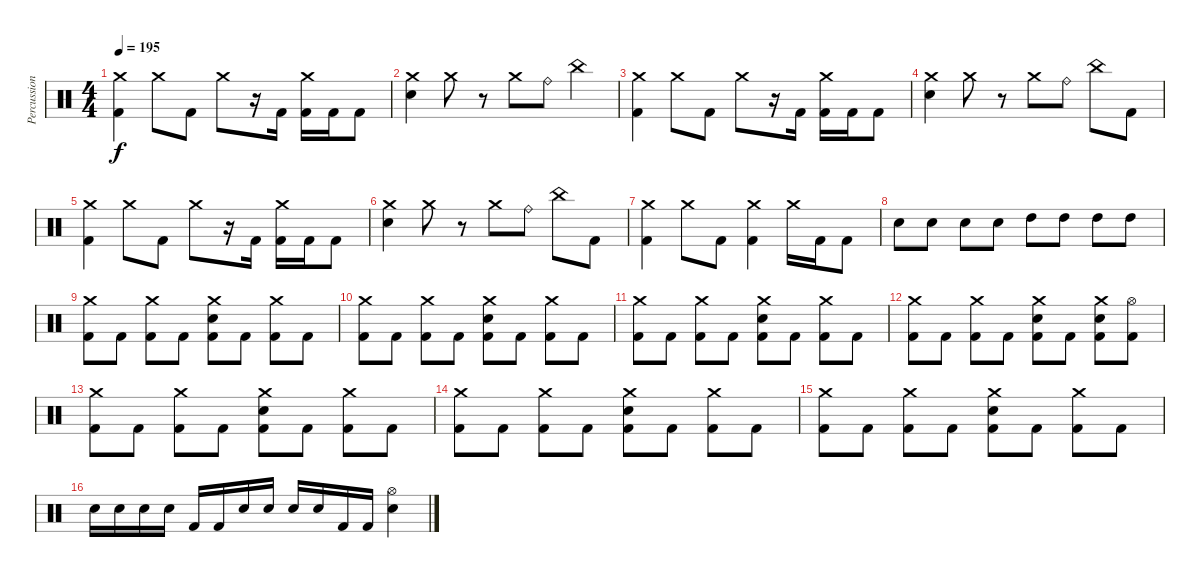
\track ("Percussion" "Percussion") {instrument percussion}
\staff {score}
\articulation defaults
\ts (4 4)
\tempo 195
\clef neutral
\ks c
("Crash medium (hit)" "Kick (hit) 2").4{dy f} "Crash medium (hit)".8 "Kick (hit) 2".8 "Crash medium (hit)".8 r.16 "Kick (hit) 2".16 ("Crash medium (hit)" "Kick (hit) 2").16 "Kick (hit) 2".16 "Kick (hit) 2".8 |
("Crash medium (hit)" "Snare (hit) 2").4 "Crash medium (hit)".8 r.8 "Crash medium (hit)".8 "Ride (bell)".8 "China (hit)".4 |
("Crash medium (hit)" "Kick (hit) 2").4 "Crash medium (hit)".8 "Kick (hit) 2".8 "Crash medium (hit)".8 r.16 "Kick (hit) 2".16 ("Crash medium (hit)" "Kick (hit) 2").16 "Kick (hit) 2".16 "Kick (hit) 2".8 |
("Crash medium (hit)" "Snare (hit) 2").4 "Crash medium (hit)".8 r.8 "Crash medium (hit)".8 "Ride (bell)".8 "China (hit)".8 "Kick (hit) 2".8 |
("Crash medium (hit)" "Kick (hit) 2").4 "Crash medium (hit)".8 "Kick (hit) 2".8 "Crash medium (hit)".8 r.16 "Kick (hit) 2".16 ("Crash medium (hit)" "Kick (hit) 2").16 "Kick (hit) 2".16 "Kick (hit) 2".8 |
("Crash medium (hit)" "Snare (hit) 2").4 "Crash medium (hit)".8 r.8 "Crash medium (hit)".8 "Ride (bell)".8 "China (hit)".8 "Kick (hit) 2".8 |
("Crash medium (hit)" "Kick (hit) 2").4 "Crash medium (hit)".8 "Kick (hit) 2".8 ("Crash medium (hit)" "Kick (hit) 2").4 "Crash medium (hit)".16 "Kick (hit) 2".16 "Kick (hit) 2".8 |
"Snare (hit) 2".8 "Snare (hit) 2".8 "Snare (hit) 2".8 "Snare (hit) 2".8 "High Tom (hit)".8 "High Tom (hit)".8 "High Tom (hit)".8 "High Tom (hit)".8 |
("Crash medium (hit)" "Kick (hit) 2").8 "Kick (hit) 2".8 ("Crash medium (hit)" "Kick (hit) 2").8 "Kick (hit) 2".8 ("Crash medium (hit)" "Snare (hit) 2" "Kick (hit) 2").8 "Kick (hit) 2".8 ("Crash medium (hit)" "Kick (hit) 2").8 "Kick (hit) 2".8 |
("Crash medium (hit)" "Kick (hit) 2").8 "Kick (hit) 2".8 ("Crash medium (hit)" "Kick (hit) 2").8 "Kick (hit) 2".8 ("Crash medium (hit)" "Snare (hit) 2" "Kick (hit) 2").8 "Kick (hit) 2".8 ("Crash medium (hit)" "Kick (hit) 2").8 "Kick (hit) 2".8 |
("Crash medium (hit)" "Kick (hit) 2").8 "Kick (hit) 2".8 ("Crash medium (hit)" "Kick (hit) 2").8 "Kick (hit) 2".8 ("Crash medium (hit)" "Snare (hit) 2" "Kick (hit) 2").8 "Kick (hit) 2".8 ("Crash medium (hit)" "Kick (hit) 2").8 "Kick (hit) 2".8 |
("Crash medium (hit)" "Kick (hit) 2").8 "Kick (hit) 2".8 ("Crash medium (hit)" "Kick (hit) 2").8 "Kick (hit) 2".8 ("Crash medium (hit)" "Snare (hit) 2" "Kick (hit) 2").8 "Kick (hit) 2".8 ("Crash medium (hit)" "Snare (hit) 2" "Kick (hit) 2").8 ("Hi-Hat (open)" "Kick (hit) 2").8 |
("Crash medium (hit)" "Kick (hit) 2").8 "Kick (hit) 2".8 ("Crash medium (hit)" "Kick (hit) 2").8 "Kick (hit) 2".8 ("Crash medium (hit)" "Snare (hit) 2" "Kick (hit) 2").8 "Kick (hit) 2".8 ("Crash medium (hit)" "Kick (hit) 2").8 "Kick (hit) 2".8 |
("Crash medium (hit)" "Kick (hit) 2").8 "Kick (hit) 2".8 ("Crash medium (hit)" "Kick (hit) 2").8 "Kick (hit) 2".8 ("Crash medium (hit)" "Snare (hit) 2" "Kick (hit) 2").8 "Kick (hit) 2".8 ("Crash medium (hit)" "Kick (hit) 2").8 "Kick (hit) 2".8 |
("Crash medium (hit)" "Kick (hit) 2").8 "Kick (hit) 2".8 ("Crash medium (hit)" "Kick (hit) 2").8 "Kick (hit) 2".8 ("Crash medium (hit)" "Snare (hit) 2" "Kick (hit) 2").8 "Kick (hit) 2".8 ("Crash medium (hit)" "Kick (hit) 2").8 "Kick (hit) 2".8 |
"Snare (hit) 2".16 "Snare (hit) 2".16 "Snare (hit) 2".16 "Snare (hit) 2".16 "Kick (hit) 2".16 "Kick (hit) 2".16 "Snare (hit) 2".16 "Snare (hit) 2".16 "Snare (hit) 2".16 "Snare (hit) 2".16 "Kick (hit) 2".16 "Kick (hit) 2".16 ("Hi-Hat (open)" "Snare (hit) 2").4
